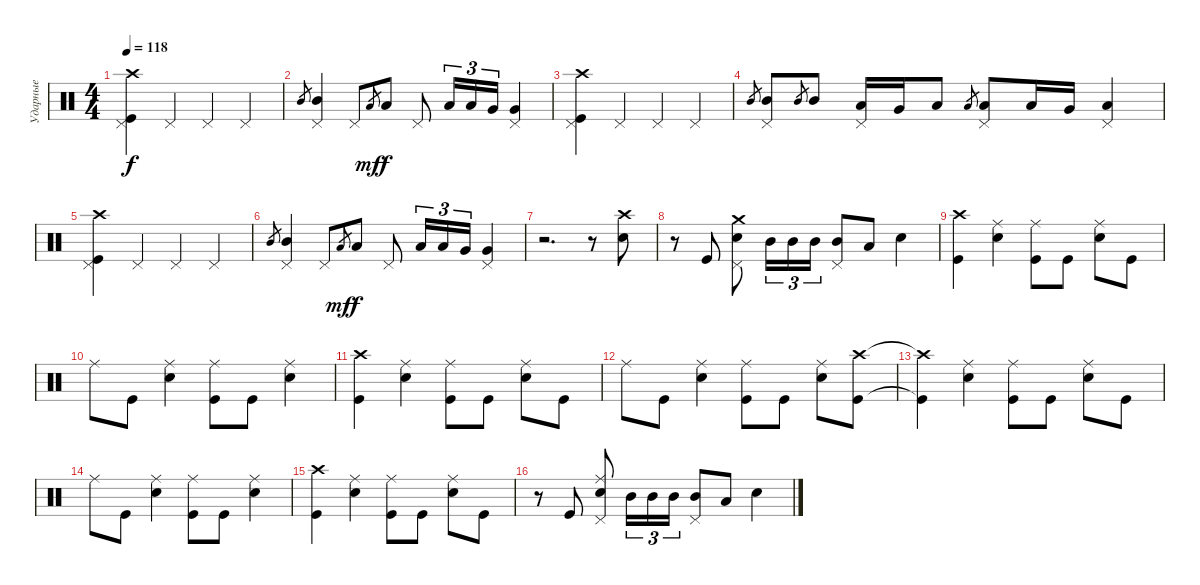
\track ("Ударные" "Ударные") {instrument percussion}
\staff {score}
\articulation defaults
\ts (4 4)
\tempo 118
\clef neutral
\ks c
("Crash high (hit)" "Kick (hit)" "Pedal Hi-Hat (hit)").4{dy f} "Pedal Hi-Hat (hit)".4 "Pedal Hi-Hat (hit)".4 "Pedal Hi-Hat (hit)".4 |
"Mid Tom (hit)".8{gr} ("Mid Tom (hit)" "Pedal Hi-Hat (hit)").4 "Pedal Hi-Hat (hit)".8 "Low Tom (hit)".8{gr dy mf} "Low Tom (hit)".8{dy f} "Pedal Hi-Hat (hit)".8 "Low Tom (hit)".16{tu (3 2)} "Low Tom (hit)".16{tu (3 2)} "Very Low Tom (hit)".16{tu (3 2)} ("Pedal Hi-Hat (hit)" "Very Low Tom (hit)").4 |
("Crash high (hit)" "Kick (hit)" "Pedal Hi-Hat (hit)").4 "Pedal Hi-Hat (hit)".4 "Pedal Hi-Hat (hit)".4 "Pedal Hi-Hat (hit)".4 |
"Mid Tom (hit)".8{gr} ("Mid Tom (hit)" "Pedal Hi-Hat (hit)").8 "Mid Tom (hit)".8{gr} "Mid Tom (hit)".8 ("Low Tom (hit)" "Pedal Hi-Hat (hit)").16 "Very Low Tom (hit)".16 "Low Floor Tom (hit)".8 "Low Tom (hit)".8{gr} ("Low Tom (hit)" "Pedal Hi-Hat (hit)").8 "Low Tom (hit)".16 "Very Low Tom (hit)".16 ("Low Floor Tom (hit)" "Pedal Hi-Hat (hit)").4 |
("Crash high (hit)" "Kick (hit)" "Pedal Hi-Hat (hit)").4 "Pedal Hi-Hat (hit)".4 "Pedal Hi-Hat (hit)".4 "Pedal Hi-Hat (hit)".4 |
"Mid Tom (hit)".8{gr} ("Mid Tom (hit)" "Pedal Hi-Hat (hit)").4 "Pedal Hi-Hat (hit)".8 "Low Tom (hit)".8{gr dy mf} "Low Tom (hit)".8{dy f} "Pedal Hi-Hat (hit)".8 "Low Tom (hit)".16{tu (3 2)} "Low Tom (hit)".16{tu (3 2)} "Very Low Tom (hit)".16{tu (3 2)} ("Pedal Hi-Hat (hit)" "Very Low Tom (hit)").4 |
r.2{d} r.8 ("Crash high (hit)" "Snare (hit) 2").8 |
r.8 "Kick (hit)".8 ("Crash medium (hit)" "Snare (hit) 2" "Pedal Hi-Hat (hit)").8 "Mid Tom (hit)".16{tu (3 2)} "Mid Tom (hit)".16{tu (3 2)} "Mid Tom (hit)".16{tu (3 2)} ("Mid Tom (hit)" "Pedal Hi-Hat (hit)").8 "Low Tom (hit)".8 "Snare (hit) 2".4 |
("Crash high (hit)" "Kick (hit)").4 ("Ride (middle)" "Snare (hit) 2").4 ("Ride (middle)" "Kick (hit)").8 "Kick (hit)".8 ("Ride (middle)" "Snare (hit) 2").8 "Kick (hit)".8 |
"Ride (middle)".8 "Kick (hit)".8 ("Ride (middle)" "Snare (hit) 2").4 ("Ride (middle)" "Kick (hit)").8 "Kick (hit)".8 ("Ride (middle)" "Snare (hit) 2").4 |
("Crash high (hit)" "Kick (hit)").4 ("Ride (middle)" "Snare (hit) 2").4 ("Ride (middle)" "Kick (hit)").8 "Kick (hit)".8 ("Ride (middle)" "Snare (hit) 2").8 "Kick (hit)".8 |
"Ride (middle)".8 "Kick (hit)".8 ("Ride (middle)" "Snare (hit) 2").4 ("Ride (middle)" "Kick (hit)").8 "Kick (hit)".8 ("Ride (middle)" "Snare (hit) 2").8 ("Crash high (hit)" "Kick (hit)").8 |
("Crash high (hit)"{t} "Kick (hit)"{t}).4 ("Ride (middle)" "Snare (hit) 2").4 ("Ride (middle)" "Kick (hit)").8 "Kick (hit)".8 ("Ride (middle)" "Snare (hit) 2").8 "Kick (hit)".8 |
"Ride (middle)".8 "Kick (hit)".8 ("Ride (middle)" "Snare (hit) 2").4 ("Ride (middle)" "Kick (hit)").8 "Kick (hit)".8 ("Ride (middle)" "Snare (hit) 2").4 |
("Crash high (hit)" "Kick (hit)").4 ("Ride (middle)" "Snare (hit) 2").4 ("Ride (middle)" "Kick (hit)").8 "Kick (hit)".8 ("Ride (middle)" "Snare (hit) 2").8 "Kick (hit)".8 |
r.8 "Kick (hit)".8 ("Ride (middle)" "Snare (hit) 2" "Pedal Hi-Hat (hit)").8 "Mid Tom (hit)".16{tu (3 2)} "Mid Tom (hit)".16{tu (3 2)} "Mid Tom (hit)".16{tu (3 2)} ("Mid Tom (hit)" "Pedal Hi-Hat (hit)").8 "Low Tom (hit)".8 "Snare (hit) 2".4
